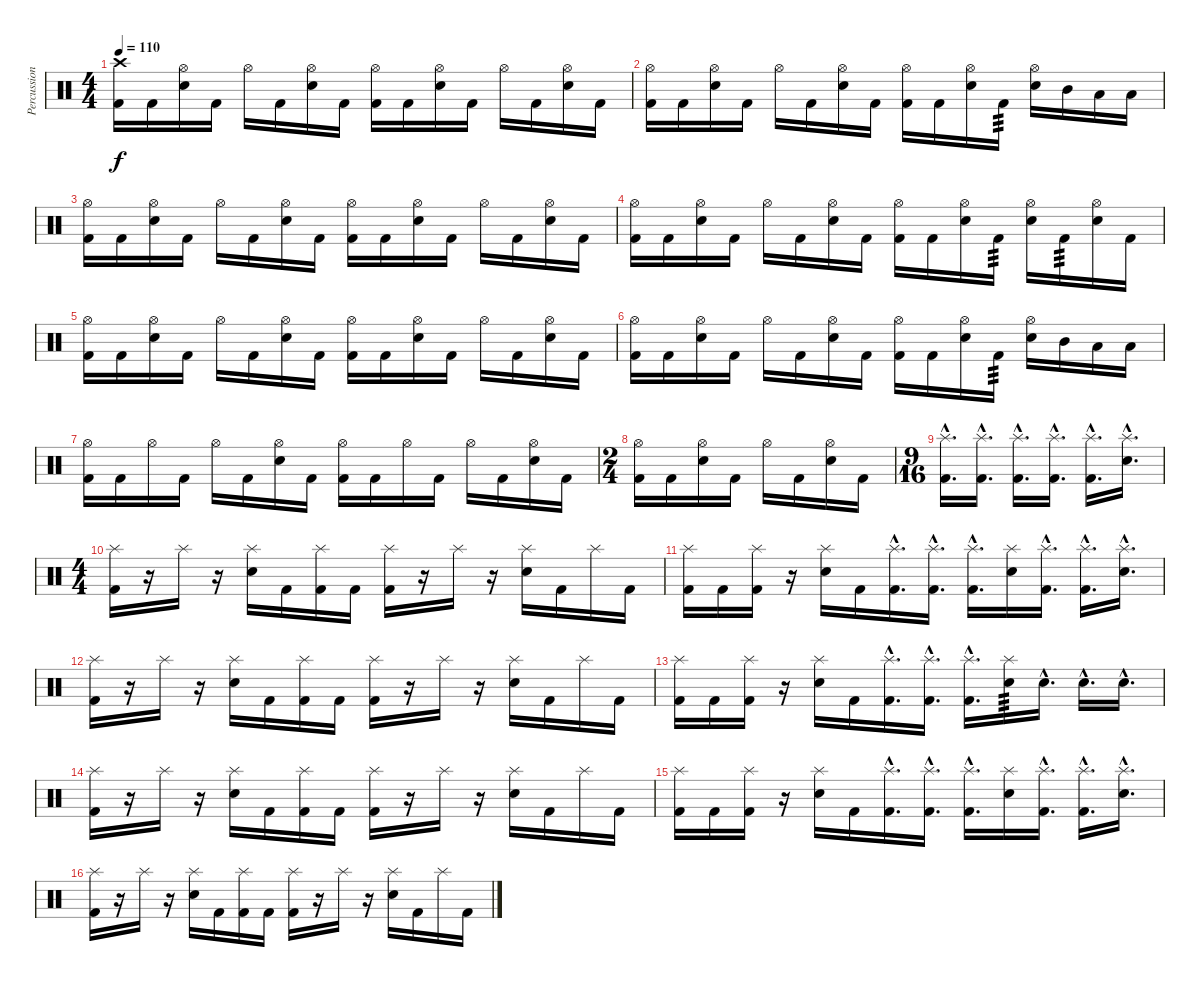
\track ("Percussion" "Percussion") {instrument percussion}
\staff {score}
\articulation defaults
\ts (4 4)
\tempo 110
\clef neutral
\ks c
("Crash high (hit)" "Kick (hit) 2").16{dy f} "Kick (hit) 2".16 ("Hi-Hat (open)" "Electric Snare (hit)").16 "Kick (hit) 2".16 "Hi-Hat (open)".16 "Kick (hit) 2".16 ("Hi-Hat (open)" "Electric Snare (hit)").16 "Kick (hit) 2".16 ("Hi-Hat (open)" "Kick (hit) 2").16 "Kick (hit) 2".16 ("Hi-Hat (open)" "Electric Snare (hit)").16 "Kick (hit) 2".16 "Hi-Hat (open)".16 "Kick (hit) 2".16 ("Hi-Hat (open)" "Electric Snare (hit)").16 "Kick (hit) 2".16 |
("Hi-Hat (open)" "Kick (hit) 2").16 "Kick (hit) 2".16 ("Hi-Hat (open)" "Electric Snare (hit)").16 "Kick (hit) 2".16 "Hi-Hat (open)".16 "Kick (hit) 2".16 ("Hi-Hat (open)" "Electric Snare (hit)").16 "Kick (hit) 2".16 ("Hi-Hat (open)" "Kick (hit) 2").16 "Kick (hit) 2".16 ("Hi-Hat (open)" "Electric Snare (hit)").16 "Kick (hit) 2".16{tp 3} ("Hi-Hat (open)" "Electric Snare (hit)").16 "Mid Tom (hit)".16 "Low Tom (hit)".16 "Low Floor Tom (hit)".16 |
("Hi-Hat (open)" "Kick (hit) 2").16 "Kick (hit) 2".16 ("Hi-Hat (open)" "Electric Snare (hit)").16 "Kick (hit) 2".16 "Hi-Hat (open)".16 "Kick (hit) 2".16 ("Hi-Hat (open)" "Electric Snare (hit)").16 "Kick (hit) 2".16 ("Hi-Hat (open)" "Kick (hit) 2").16 "Kick (hit) 2".16 ("Hi-Hat (open)" "Electric Snare (hit)").16 "Kick (hit) 2".16 "Hi-Hat (open)".16 "Kick (hit) 2".16 ("Hi-Hat (open)" "Electric Snare (hit)").16 "Kick (hit) 2".16 |
("Hi-Hat (open)" "Kick (hit) 2").16 "Kick (hit) 2".16 ("Hi-Hat (open)" "Electric Snare (hit)").16 "Kick (hit) 2".16 "Hi-Hat (open)".16 "Kick (hit) 2".16 ("Hi-Hat (open)" "Electric Snare (hit)").16 "Kick (hit) 2".16 ("Hi-Hat (open)" "Kick (hit) 2").16 "Kick (hit) 2".16 ("Hi-Hat (open)" "Electric Snare (hit)").16 "Kick (hit) 2".16{tp 3} ("Hi-Hat (open)" "Electric Snare (hit)").16 "Kick (hit) 2".16{tp 3} ("Hi-Hat (open)" "Electric Snare (hit)").16 "Kick (hit) 2".16 |
("Hi-Hat (open)" "Kick (hit) 2").16 "Kick (hit) 2".16 ("Hi-Hat (open)" "Electric Snare (hit)").16 "Kick (hit) 2".16 "Hi-Hat (open)".16 "Kick (hit) 2".16 ("Hi-Hat (open)" "Electric Snare (hit)").16 "Kick (hit) 2".16 ("Hi-Hat (open)" "Kick (hit) 2").16 "Kick (hit) 2".16 ("Hi-Hat (open)" "Electric Snare (hit)").16 "Kick (hit) 2".16 "Hi-Hat (open)".16 "Kick (hit) 2".16 ("Hi-Hat (open)" "Electric Snare (hit)").16 "Kick (hit) 2".16 |
("Hi-Hat (open)" "Kick (hit) 2").16 "Kick (hit) 2".16 ("Hi-Hat (open)" "Electric Snare (hit)").16 "Kick (hit) 2".16 "Hi-Hat (open)".16 "Kick (hit) 2".16 ("Hi-Hat (open)" "Electric Snare (hit)").16 "Kick (hit) 2".16 ("Hi-Hat (open)" "Kick (hit) 2").16 "Kick (hit) 2".16 ("Hi-Hat (open)" "Electric Snare (hit)").16 "Kick (hit) 2".16{tp 3} ("Hi-Hat (open)" "Electric Snare (hit)").16 "Mid Tom (hit)".16 "Low Tom (hit)".16 "Low Floor Tom (hit)".16 |
("Hi-Hat (open)" "Kick (hit) 2").16 "Kick (hit) 2".16 "Hi-Hat (open)".16 "Kick (hit) 2".16 "Hi-Hat (open)".16 "Kick (hit) 2".16 ("Hi-Hat (open)" "Electric Snare (hit)").16 "Kick (hit) 2".16 ("Hi-Hat (open)" "Kick (hit) 2").16 "Kick (hit) 2".16 "Hi-Hat (open)".16 "Kick (hit) 2".16 "Hi-Hat (open)".16 "Kick (hit) 2".16 ("Hi-Hat (open)" "Electric Snare (hit)").16 "Kick (hit) 2".16 |
\ts (2 4)
("Hi-Hat (open)" "Kick (hit) 2").16 "Kick (hit) 2".16 ("Hi-Hat (open)" "Electric Snare (hit)").16 "Kick (hit) 2".16 "Hi-Hat (open)".16 "Kick (hit) 2".16 ("Hi-Hat (open)" "Electric Snare (hit)").16 "Kick (hit) 2".16 |
\ts (9 16)
("Splash (hit)"{hac} "Kick (hit) 2"{hac}).16{d} ("Splash (hit)"{hac} "Kick (hit) 2"{hac}).16{d} ("Splash (hit)"{hac} "Kick (hit) 2"{hac}).16{d} ("Splash (hit)"{hac} "Kick (hit) 2"{hac}).16{d} ("Splash (hit)"{hac} "Kick (hit) 2"{hac}).16{d} ("Splash (hit)"{hac} "Electric Snare (hit)"{hac}).16{d} |
\ts (4 4)
("Splash (hit)" "Kick (hit) 2").16 r.16 "Splash (hit)".16 r.16 ("Splash (hit)" "Electric Snare (hit)").16 "Kick (hit) 2".16 ("Splash (hit)" "Kick (hit) 2").16 "Kick (hit) 2".16 ("Splash (hit)" "Kick (hit) 2").16 r.16 "Splash (hit)".16 r.16 ("Splash (hit)" "Electric Snare (hit)").16 "Kick (hit) 2".16 "Splash (hit)".16 "Kick (hit) 2".16 |
("Splash (hit)" "Kick (hit) 2").16 "Kick (hit) 2".16 ("Splash (hit)" "Kick (hit) 2").16 r.16 ("Splash (hit)" "Electric Snare (hit)").16 "Kick (hit) 2".16 ("Splash (hit)"{hac} "Kick (hit) 2"{hac}).16{d} ("Splash (hit)"{hac} "Kick (hit) 2"{hac}).16{d} ("Splash (hit)"{hac} "Kick (hit) 2"{hac}).16{d} ("Splash (hit)" "Electric Snare (hit)").16 ("Splash (hit)"{hac} "Kick (hit) 2"{hac}).16{d} ("Splash (hit)"{hac} "Kick (hit) 2"{hac}).16{d} ("Splash (hit)"{hac} "Electric Snare (hit)"{hac}).16{d} |
("Splash (hit)" "Kick (hit) 2").16 r.16 "Splash (hit)".16 r.16 ("Splash (hit)" "Electric Snare (hit)").16 "Kick (hit) 2".16 ("Splash (hit)" "Kick (hit) 2").16 "Kick (hit) 2".16 ("Splash (hit)" "Kick (hit) 2").16 r.16 "Splash (hit)".16 r.16 ("Splash (hit)" "Electric Snare (hit)").16 "Kick (hit) 2".16 "Splash (hit)".16 "Kick (hit) 2".16 |
("Splash (hit)" "Kick (hit) 2").16 "Kick (hit) 2".16 ("Splash (hit)" "Kick (hit) 2").16 r.16 ("Splash (hit)" "Electric Snare (hit)").16 "Kick (hit) 2".16 ("Splash (hit)"{hac} "Kick (hit) 2"{hac}).16{d} ("Splash (hit)"{hac} "Kick (hit) 2"{hac}).16{d} ("Splash (hit)"{hac} "Kick (hit) 2"{hac}).16{d} ("Splash (hit)" "Electric Snare (hit)").16{tp 3} "Electric Snare (hit)"{hac}.16{d} "Electric Snare (hit)"{hac}.16{d} "Electric Snare (hit)"{hac}.16{d} |
("Splash (hit)" "Kick (hit) 2").16 r.16 "Splash (hit)".16 r.16 ("Splash (hit)" "Electric Snare (hit)").16 "Kick (hit) 2".16 ("Splash (hit)" "Kick (hit) 2").16 "Kick (hit) 2".16 ("Splash (hit)" "Kick (hit) 2").16 r.16 "Splash (hit)".16 r.16 ("Splash (hit)" "Electric Snare (hit)").16 "Kick (hit) 2".16 "Splash (hit)".16 "Kick (hit) 2".16 |
("Splash (hit)" "Kick (hit) 2").16 "Kick (hit) 2".16 ("Splash (hit)" "Kick (hit) 2").16 r.16 ("Splash (hit)" "Electric Snare (hit)").16 "Kick (hit) 2".16 ("Splash (hit)"{hac} "Kick (hit) 2"{hac}).16{d} ("Splash (hit)"{hac} "Kick (hit) 2"{hac}).16{d} ("Splash (hit)"{hac} "Kick (hit) 2"{hac}).16{d} ("Splash (hit)" "Electric Snare (hit)").16 ("Splash (hit)"{hac} "Kick (hit) 2"{hac}).16{d} ("Splash (hit)"{hac} "Kick (hit) 2"{hac}).16{d} ("Splash (hit)"{hac} "Electric Snare (hit)"{hac}).16{d} |
("Splash (hit)" "Kick (hit) 2").16 r.16 "Splash (hit)".16 r.16 ("Splash (hit)" "Electric Snare (hit)").16 "Kick (hit) 2".16 ("Splash (hit)" "Kick (hit) 2").16 "Kick (hit) 2".16 ("Splash (hit)" "Kick (hit) 2").16 r.16 "Splash (hit)".16 r.16 ("Splash (hit)" "Electric Snare (hit)").16 "Kick (hit) 2".16 "Splash (hit)".16 "Kick (hit) 2".16
